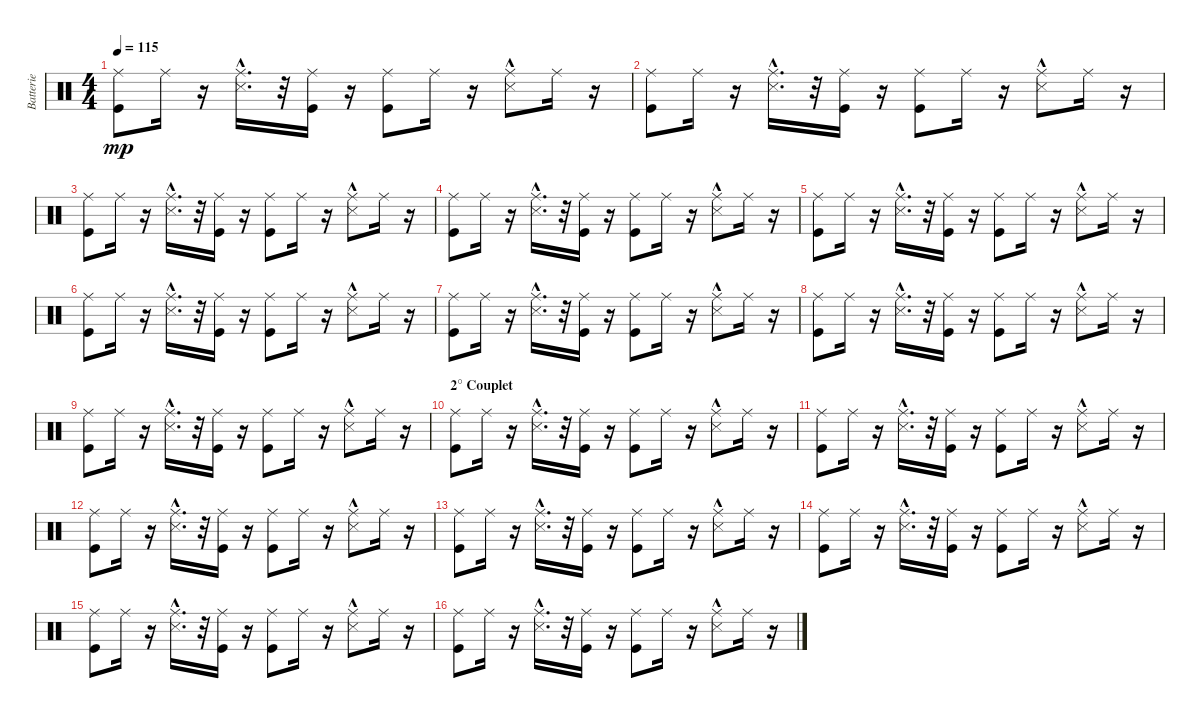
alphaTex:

\track ("Batterie" "Batterie") {instrument percussion}
\staff {score}
\articulation defaults
\ts (4 4)
\tempo 115
\clef neutral
\ks c
("Kick (hit)" "Ride (middle)").8{dy mp} "Ride (middle)".16 r.16 ("Snare (side stick) 3"{hac} "Ride (middle)").16{d} r.32 ("Ride (middle)" "Kick (hit)").16 r.16 ("Ride (middle)" "Kick (hit)").8 "Ride (middle)".16 r.16 ("Snare (side stick) 3"{hac} "Ride (middle)").8 "Ride (middle)".16 r.16 |
("Kick (hit)" "Ride (middle)").8 "Ride (middle)".16 r.16 ("Snare (side stick) 3"{hac} "Ride (middle)").16{d} r.32 ("Ride (middle)" "Kick (hit)").16 r.16 ("Ride (middle)" "Kick (hit)").8 "Ride (middle)".16 r.16 ("Snare (side stick) 3"{hac} "Ride (middle)").8 "Ride (middle)".16 r.16 |
("Kick (hit)" "Ride (middle)").8 "Ride (middle)".16 r.16 ("Snare (side stick) 3"{hac} "Ride (middle)").16{d} r.32 ("Ride (middle)" "Kick (hit)").16 r.16 ("Ride (middle)" "Kick (hit)").8 "Ride (middle)".16 r.16 ("Snare (side stick) 3"{hac} "Ride (middle)").8 "Ride (middle)".16 r.16 |
("Kick (hit)" "Ride (middle)").8 "Ride (middle)".16 r.16 ("Snare (side stick) 3"{hac} "Ride (middle)").16{d} r.32 ("Ride (middle)" "Kick (hit)").16 r.16 ("Ride (middle)" "Kick (hit)").8 "Ride (middle)".16 r.16 ("Snare (side stick) 3"{hac} "Ride (middle)").8 "Ride (middle)".16 r.16 |
("Kick (hit)" "Ride (middle)").8 "Ride (middle)".16 r.16 ("Snare (side stick) 3"{hac} "Ride (middle)").16{d} r.32 ("Ride (middle)" "Kick (hit)").16 r.16 ("Ride (middle)" "Kick (hit)").8 "Ride (middle)".16 r.16 ("Snare (side stick) 3"{hac} "Ride (middle)").8 "Ride (middle)".16 r.16 |
("Kick (hit)" "Ride (middle)").8 "Ride (middle)".16 r.16 ("Snare (side stick) 3"{hac} "Ride (middle)").16{d} r.32 ("Ride (middle)" "Kick (hit)").16 r.16 ("Ride (middle)" "Kick (hit)").8 "Ride (middle)".16 r.16 ("Snare (side stick) 3"{hac} "Ride (middle)").8 "Ride (middle)".16 r.16 |
("Kick (hit)" "Ride (middle)").8 "Ride (middle)".16 r.16 ("Snare (side stick) 3"{hac} "Ride (middle)").16{d} r.32 ("Ride (middle)" "Kick (hit)").16 r.16 ("Ride (middle)" "Kick (hit)").8 "Ride (middle)".16 r.16 ("Snare (side stick) 3"{hac} "Ride (middle)").8 "Ride (middle)".16 r.16 |
("Kick (hit)" "Ride (middle)").8 "Ride (middle)".16 r.16 ("Snare (side stick) 3"{hac} "Ride (middle)").16{d} r.32 ("Ride (middle)" "Kick (hit)").16 r.16 ("Ride (middle)" "Kick (hit)").8 "Ride (middle)".16 r.16 ("Snare (side stick) 3"{hac} "Ride (middle)").8 "Ride (middle)".16 r.16 |
("Kick (hit)" "Ride (middle)").8 "Ride (middle)".16 r.16 ("Snare (side stick) 3"{hac} "Ride (middle)").16{d} r.32 ("Ride (middle)" "Kick (hit)").16 r.16 ("Ride (middle)" "Kick (hit)").8 "Ride (middle)".16 r.16 ("Snare (side stick) 3"{hac} "Ride (middle)").8 "Ride (middle)".16 r.16 |
\section ("" "2° Couplet")
("Kick (hit)" "Ride (middle)").8 "Ride (middle)".16 r.16 ("Snare (side stick) 3"{hac} "Ride (middle)").16{d} r.32 ("Ride (middle)" "Kick (hit)").16 r.16 ("Ride (middle)" "Kick (hit)").8 "Ride (middle)".16 r.16 ("Snare (side stick) 3"{hac} "Ride (middle)").8 "Ride (middle)".16 r.16 |
("Kick (hit)" "Ride (middle)").8 "Ride (middle)".16 r.16 ("Snare (side stick) 3"{hac} "Ride (middle)").16{d} r.32 ("Ride (middle)" "Kick (hit)").16 r.16 ("Ride (middle)" "Kick (hit)").8 "Ride (middle)".16 r.16 ("Snare (side stick) 3"{hac} "Ride (middle)").8 "Ride (middle)".16 r.16 |
("Kick (hit)" "Ride (middle)").8 "Ride (middle)".16 r.16 ("Snare (side stick) 3"{hac} "Ride (middle)").16{d} r.32 ("Ride (middle)" "Kick (hit)").16 r.16 ("Ride (middle)" "Kick (hit)").8 "Ride (middle)".16 r.16 ("Snare (side stick) 3"{hac} "Ride (middle)").8 "Ride (middle)".16 r.16 |
("Kick (hit)" "Ride (middle)").8 "Ride (middle)".16 r.16 ("Snare (side stick) 3"{hac} "Ride (middle)").16{d} r.32 ("Ride (middle)" "Kick (hit)").16 r.16 ("Ride (middle)" "Kick (hit)").8 "Ride (middle)".16 r.16 ("Snare (side stick) 3"{hac} "Ride (middle)").8 "Ride (middle)".16 r.16 |
("Kick (hit)" "Ride (middle)").8 "Ride (middle)".16 r.16 ("Snare (side stick) 3"{hac} "Ride (middle)").16{d} r.32 ("Ride (middle)" "Kick (hit)").16 r.16 ("Ride (middle)" "Kick (hit)").8 "Ride (middle)".16 r.16 ("Snare (side stick) 3"{hac} "Ride (middle)").8 "Ride (middle)".16 r.16 |
("Kick (hit)" "Ride (middle)").8 "Ride (middle)".16 r.16 ("Snare (side stick) 3"{hac} "Ride (middle)").16{d} r.32 ("Ride (middle)" "Kick (hit)").16 r.16 ("Ride (middle)" "Kick (hit)").8 "Ride (middle)".16 r.16 ("Snare (side stick) 3"{hac} "Ride (middle)").8 "Ride (middle)".16 r.16 |
("Kick (hit)" "Ride (middle)").8 "Ride (middle)".16 r.16 ("Snare (side stick) 3"{hac} "Ride (middle)").16{d} r.32 ("Ride (middle)" "Kick (hit)").16 r.16 ("Ride (middle)" "Kick (hit)").8 "Ride (middle)".16 r.16 ("Snare (side stick) 3"{hac} "Ride (middle)").8 "Ride (middle)".16 r.16
